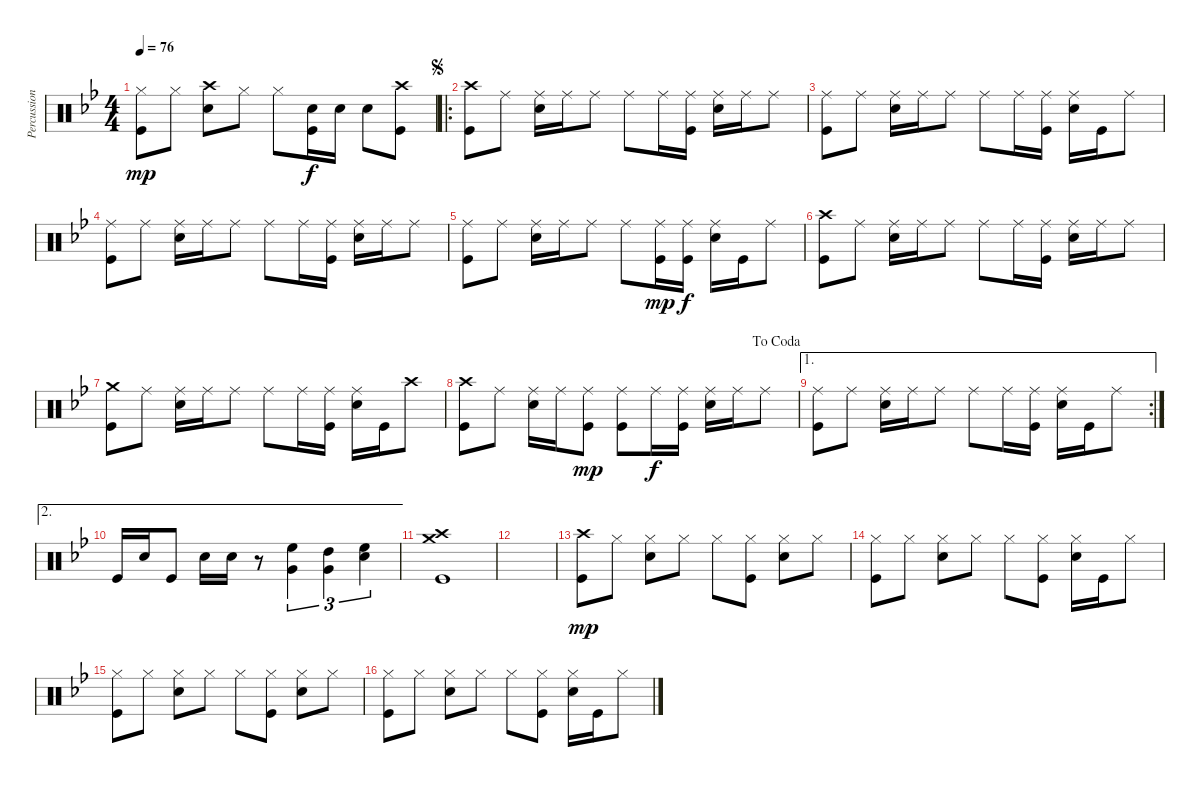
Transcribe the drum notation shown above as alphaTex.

\track ("Percussions" "Percussion") {instrument percussion}
\staff {score}
\articulation defaults
\ts (4 4)
\tempo 76
\clef neutral
\ks bb
("Hi-Hat (closed)" "Kick (hit)").8{dy mp} "Hi-Hat (closed)".8 ("Snare (hit) 2" "Crash high (hit)").8 "Hi-Hat (closed)".8 "Hi-Hat (closed)".8 ("Snare (hit) 2" "Kick (hit)").16{dy f} "Snare (hit) 2".16 "Snare (hit) 2".8 ("Kick (hit)" "Crash high (hit)").8 |
\ro
\jump segno
("Crash high (hit)" "Kick (hit)").8 "Ride (middle)".8 ("Ride (middle)" "Snare (hit) 2").16 "Ride (middle)".16 "Ride (middle)".8 "Ride (middle)".8 "Ride (middle)".16 ("Kick (hit)" "Ride (middle)").16 ("Snare (hit) 2" "Ride (middle)").16 "Ride (middle)".16 "Ride (middle)".8 |
("Ride (middle)" "Kick (hit)").8 "Ride (middle)".8 ("Ride (middle)" "Snare (hit) 2").16 "Ride (middle)".16 "Ride (middle)".8 "Ride (middle)".8 "Ride (middle)".16 ("Ride (middle)" "Kick (hit)").16 ("Ride (middle)" "Snare (hit) 2").16 "Kick (hit)".16 "Ride (middle)".8 |
("Ride (middle)" "Kick (hit)").8 "Ride (middle)".8 ("Ride (middle)" "Snare (hit) 2").16 "Ride (middle)".16 "Ride (middle)".8 "Ride (middle)".8 "Ride (middle)".16 ("Kick (hit)" "Ride (middle)").16 ("Snare (hit) 2" "Ride (middle)").16 "Ride (middle)".16 "Ride (middle)".8 |
("Ride (middle)" "Kick (hit)").8 "Ride (middle)".8 ("Ride (middle)" "Snare (hit) 2").16 "Ride (middle)".16 "Ride (middle)".8 "Ride (middle)".8 ("Ride (middle)" "Kick (hit)").16{dy mp} ("Ride (middle)" "Kick (hit)").16{dy f} ("Ride (middle)" "Snare (hit) 2").16 "Kick (hit)".16 "Ride (middle)".8 |
("Crash high (hit)" "Kick (hit)").8 "Ride (middle)".8 ("Ride (middle)" "Snare (hit) 2").16 "Ride (middle)".16 "Ride (middle)".8 "Ride (middle)".8 "Ride (middle)".16 ("Kick (hit)" "Ride (middle)").16 ("Snare (hit) 2" "Ride (middle)").16 "Ride (middle)".16 "Ride (middle)".8 |
("Kick (hit)" "Crash medium (hit)").8 "Ride (middle)".8 ("Ride (middle)" "Snare (hit) 2").16 "Ride (middle)".16 "Ride (middle)".8 "Ride (middle)".8 "Ride (middle)".16 ("Ride (middle)" "Kick (hit)").16 ("Ride (middle)" "Snare (hit) 2").16 "Kick (hit)".16 "Crash high (hit)".8 |
\jump dacoda
("Crash high (hit)" "Kick (hit)").8 "Ride (middle)".8 ("Ride (middle)" "Snare (hit) 2").16 "Ride (middle)".16 ("Ride (middle)" "Kick (hit)").8{dy mp} ("Ride (middle)" "Kick (hit)").8 "Ride (middle)".16{dy f} ("Kick (hit)" "Ride (middle)").16 ("Snare (hit) 2" "Ride (middle)").16 "Ride (middle)".16 "Ride (middle)".8 |
\ae 1
\rc 2
("Ride (middle)" "Kick (hit)").8 "Ride (middle)".8 ("Ride (middle)" "Snare (hit) 2").16 "Ride (middle)".16 "Ride (middle)".8 "Ride (middle)".8 "Ride (middle)".16 ("Ride (middle)" "Kick (hit)").16 ("Ride (middle)" "Snare (hit) 2").16 "Kick (hit)".16 "Ride (middle)".8 |
\ae 2 "Kick (hit)".16 "Snare (hit) 2".16 "Kick (hit)".8 "Snare (hit) 2".16 "Snare (hit) 2".16
r.8 ("High Floor Tom (hit)" "Very Low Tom (hit)").4{tu (3 2)} ("High Tom (hit)" "Very Low Tom (hit)").4{tu (3 2)} ("Snare (hit) 2" "High Floor Tom (hit)").4{tu (3 2)} |
("Crash high (hit)" "Kick (hit)" "Crash medium (hit)").1 |
|
("Crash high (hit)" "Kick (hit)").8{dy mp} "Hi-Hat (closed)".8 ("Hi-Hat (closed)" "Snare (hit) 2").8 "Hi-Hat (closed)".8 "Hi-Hat (closed)".8 ("Hi-Hat (closed)" "Kick (hit)").8 ("Snare (hit) 2" "Hi-Hat (closed)").8 "Hi-Hat (closed)".8 |
("Hi-Hat (closed)" "Kick (hit)").8 "Hi-Hat (closed)".8 ("Hi-Hat (closed)" "Snare (hit) 2").8 "Hi-Hat (closed)".8 "Hi-Hat (closed)".8 ("Hi-Hat (closed)" "Kick (hit)").8 ("Hi-Hat (closed)" "Snare (hit) 2").16 "Kick (hit)".16 "Hi-Hat (closed)".8 |
("Hi-Hat (closed)" "Kick (hit)").8 "Hi-Hat (closed)".8 ("Hi-Hat (closed)" "Snare (hit) 2").8 "Hi-Hat (closed)".8 "Hi-Hat (closed)".8 ("Hi-Hat (closed)" "Kick (hit)").8 ("Snare (hit) 2" "Hi-Hat (closed)").8 "Hi-Hat (closed)".8 |
("Hi-Hat (closed)" "Kick (hit)").8 "Hi-Hat (closed)".8 ("Hi-Hat (closed)" "Snare (hit) 2").8 "Hi-Hat (closed)".8 "Hi-Hat (closed)".8 ("Hi-Hat (closed)" "Kick (hit)").8 ("Hi-Hat (closed)" "Snare (hit) 2").16 "Kick (hit)".16 "Hi-Hat (closed)".8
